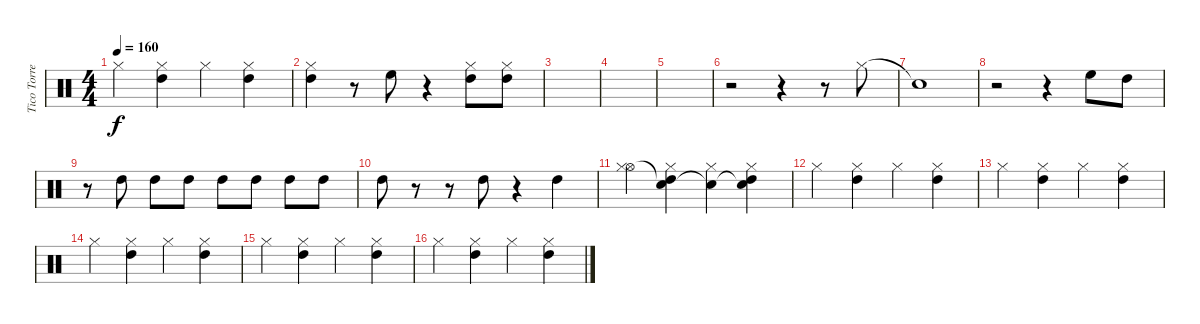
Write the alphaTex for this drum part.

\track ("Tico Torres" "Tico Torre") {instrument percussion}
\staff {score}
\articulation defaults
\ts (4 4)
\tempo 160
\clef neutral
\ks c "Hi-Hat (closed)".4{dy f}
("Hi-Hat (closed)" "High Tom (hit)").4 "Hi-Hat (closed)".4 ("Hi-Hat (closed)" "High Tom (hit)").4 |
("Hi-Hat (closed)" "High Tom (hit)").4 r.8 "High Floor Tom (hit)".8 r.4 ("Hi-Hat (closed)" "High Tom (hit)").8 ("Hi-Hat (closed)" "High Tom (hit)").8 |
|
|
|
r.2 r.4 r.8 "Hi-Hat (closed)".8 |
"Snare (hit)"{t}.1 |
r.2 r.4 "High Floor Tom (hit)".8 "High Tom (hit)".8 |
r.8 "High Tom (hit)".8 "High Tom (hit)".8 "High Tom (hit)".8 "High Tom (hit)".8 "High Tom (hit)".8 "High Tom (hit)".8 "High Tom (hit)".8 |
"High Tom (hit)".8 r.8 r.8 "High Tom (hit)".8 r.4 "High Tom (hit)".4 |
("Hi-Hat (open)" "Hi-Hat (closed)").4 ("Snare (hit)"{t} "Hi-Hat (closed)" "High Tom (hit)").4 ("Snare (hit)"{t} "Hi-Hat (closed)").4 ("Snare (hit)"{t} "Hi-Hat (closed)" "High Tom (hit)").4 |
"Hi-Hat (closed)".4 ("Hi-Hat (closed)" "High Tom (hit)").4 "Hi-Hat (closed)".4 ("Hi-Hat (closed)" "High Tom (hit)").4 |
"Hi-Hat (closed)".4 ("Hi-Hat (closed)" "High Tom (hit)").4 "Hi-Hat (closed)".4 ("Hi-Hat (closed)" "High Tom (hit)").4 |
"Hi-Hat (closed)".4 ("Hi-Hat (closed)" "High Tom (hit)").4 "Hi-Hat (closed)".4 ("Hi-Hat (closed)" "High Tom (hit)").4 |
"Hi-Hat (closed)".4 ("Hi-Hat (closed)" "High Tom (hit)").4 "Hi-Hat (closed)".4 ("Hi-Hat (closed)" "High Tom (hit)").4 |
"Hi-Hat (closed)".4 ("Hi-Hat (closed)" "High Tom (hit)").4 "Hi-Hat (closed)".4 ("Hi-Hat (closed)" "High Tom (hit)").4
